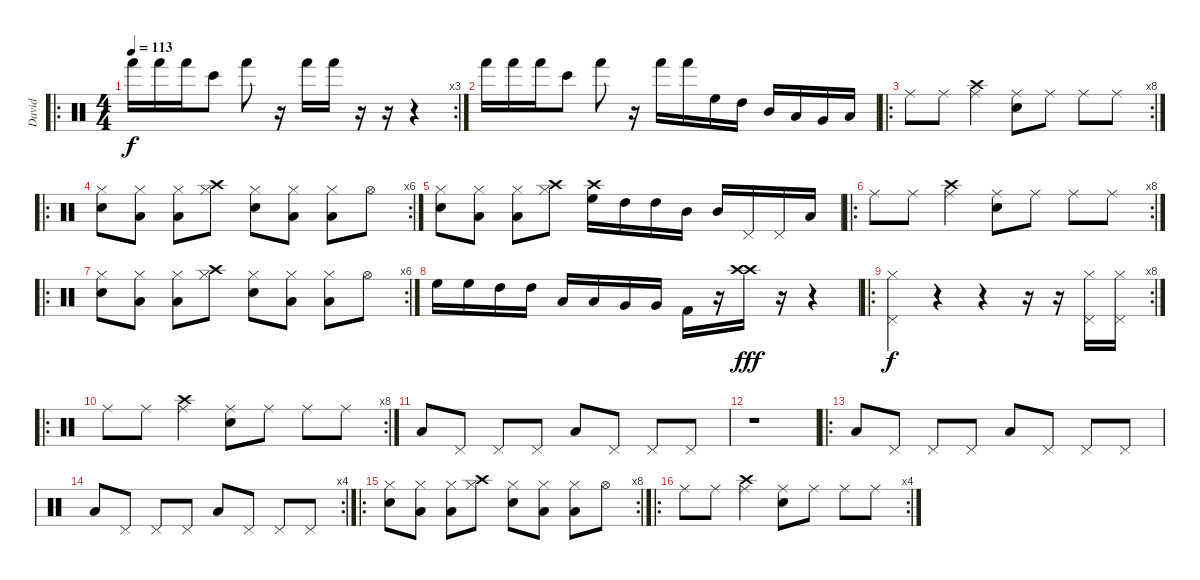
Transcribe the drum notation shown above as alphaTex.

\track ("David" "David") {instrument percussion}
\staff {score}
\articulation defaults
\ro
\rc 3
\ts (4 4)
\tempo 113
\clef neutral
\ks c "Hand (hit)".16{dy f} "Hand (hit)".16 "Hand (hit)".16 "Bongo High (hit)".8 "Hand (hit)".8
r.16 "Hand (hit)".16 "Hand (hit)".16 r.16 r.16 r.4 |
"Hand (hit)".16 "Hand (hit)".16 "Hand (hit)".16 "Bongo High (hit)".8 "Hand (hit)".8 r.16 "Hand (hit)".16 "Hand (hit)".16 "High Floor Tom (hit)".16 "High Tom (hit)".16 "Mid Tom (hit)".16 "Low Tom (hit)".16 "Very Low Tom (hit)".16 "Low Floor Tom (hit)".16 |
\ro
\rc 8 "Ride (middle)".8 "Ride (middle)".8
("Crash high (hit)" "Ride (middle)").4 ("Electric Snare (hit)" "Ride (middle)").8 "Ride (middle)".8 "Ride (middle)".8 "Ride (middle)".8 |
\ro
\rc 6
("Hi-Hat (closed)" "Electric Snare (hit)").8 ("Hi-Hat (closed)" "Low Tom (hit)").8 ("Hi-Hat (closed)" "Low Tom (hit)").8 ("Crash high (hit)" "Hi-Hat (closed)").8 ("Hi-Hat (closed)" "Electric Snare (hit)").8 ("Hi-Hat (closed)" "Low Tom (hit)").8 ("Hi-Hat (closed)" "Low Tom (hit)").8 "Hi-Hat (open)".8 |
("Hi-Hat (closed)" "Electric Snare (hit)").8 ("Hi-Hat (closed)" "Low Tom (hit)").8 ("Hi-Hat (closed)" "Low Tom (hit)").8 ("Crash high (hit)" "Hi-Hat (closed)").8 ("Crash high (hit)" "High Floor Tom (hit)").16 "High Tom (hit)".16 "High Tom (hit)".16 "Mid Tom (hit)".16 "Mid Tom (hit)".16 "Pedal Hi-Hat (hit)".16 "Pedal Hi-Hat (hit)".16 "Low Tom (hit)".16 |
\ro
\rc 8 "Ride (middle)".8 "Ride (middle)".8
("Crash high (hit)" "Ride (middle)").4 ("Electric Snare (hit)" "Ride (middle)").8 "Ride (middle)".8 "Ride (middle)".8 "Ride (middle)".8 |
\ro
\rc 6
("Hi-Hat (closed)" "Electric Snare (hit)").8 ("Hi-Hat (closed)" "Low Tom (hit)").8 ("Hi-Hat (closed)" "Low Tom (hit)").8 ("Crash high (hit)" "Hi-Hat (closed)").8 ("Hi-Hat (closed)" "Electric Snare (hit)").8 ("Hi-Hat (closed)" "Low Tom (hit)").8 ("Hi-Hat (closed)" "Low Tom (hit)").8 "Hi-Hat (open)".8 |
"High Floor Tom (hit)".16 "High Floor Tom (hit)".16 "High Tom (hit)".16 "High Tom (hit)".16 "Low Tom (hit)".16 "Low Tom (hit)".16 "Very Low Tom (hit)".16 "Very Low Tom (hit)".16 "Kick (hit) 2".16 r.16 ("Crash high (hit)" "Crash high (hit)").16{dy fff} r.16 r.4 |
\ro
\rc 8
("Pedal Hi-Hat (hit)" "Hi-Hat (closed)").4{dy f} r.4 r.4 r.16 r.16 ("Pedal Hi-Hat (hit)" "Hi-Hat (closed)").16 ("Pedal Hi-Hat (hit)" "Hi-Hat (closed)").16 |
\ro
\rc 8 "Ride (middle)".8 "Ride (middle)".8
("Crash high (hit)" "Ride (middle)").4 ("Electric Snare (hit)" "Ride (middle)").8 "Ride (middle)".8 "Ride (middle)".8 "Ride (middle)".8 |
"Low Tom (hit)".8 "Pedal Hi-Hat (hit)".8 "Pedal Hi-Hat (hit)".8 "Pedal Hi-Hat (hit)".8 "Low Tom (hit)".8 "Pedal Hi-Hat (hit)".8 "Pedal Hi-Hat (hit)".8 "Pedal Hi-Hat (hit)".8 |
r.1 |
\ro "Low Tom (hit)".8 "Pedal Hi-Hat (hit)".8 "Pedal Hi-Hat (hit)".8 "Pedal Hi-Hat (hit)".8 "Low Tom (hit)".8 "Pedal Hi-Hat (hit)".8 "Pedal Hi-Hat (hit)".8 "Pedal Hi-Hat (hit)".8
|
\rc 4 "Low Tom (hit)".8 "Pedal Hi-Hat (hit)".8 "Pedal Hi-Hat (hit)".8 "Pedal Hi-Hat (hit)".8 "Low Tom (hit)".8 "Pedal Hi-Hat (hit)".8 "Pedal Hi-Hat (hit)".8 "Pedal Hi-Hat (hit)".8
|
\ro
\rc 8
("Hi-Hat (closed)" "Electric Snare (hit)").8 ("Hi-Hat (closed)" "Low Tom (hit)").8 ("Hi-Hat (closed)" "Low Tom (hit)").8 ("Crash high (hit)" "Hi-Hat (closed)").8 ("Hi-Hat (closed)" "Electric Snare (hit)").8 ("Hi-Hat (closed)" "Low Tom (hit)").8 ("Hi-Hat (closed)" "Low Tom (hit)").8 "Hi-Hat (open)".8 |
\ro
\rc 4 "Ride (middle)".8 "Ride (middle)".8
("Crash high (hit)" "Ride (middle)").4 ("Electric Snare (hit)" "Ride (middle)").8 "Ride (middle)".8 "Ride (middle)".8 "Ride (middle)".8
